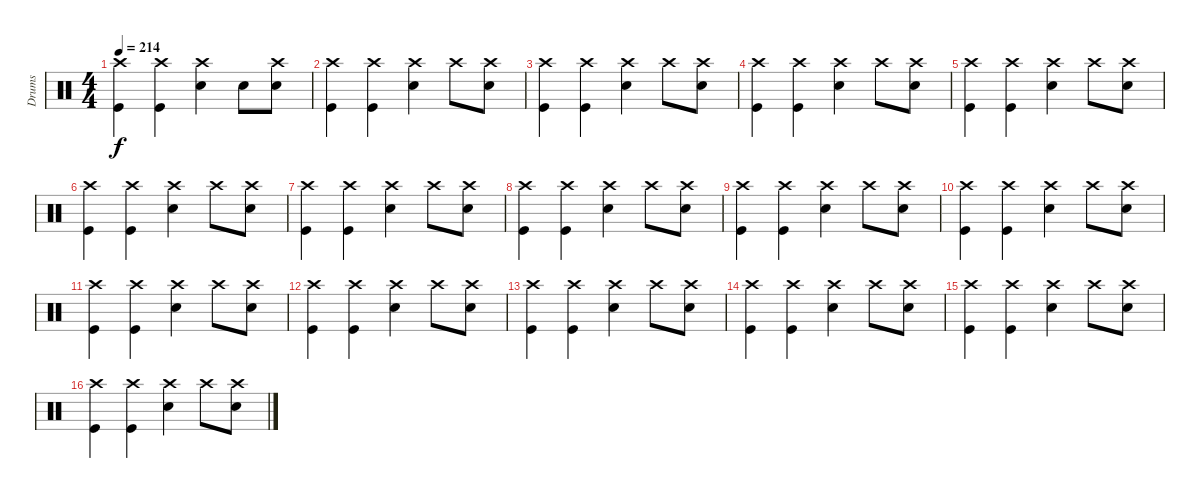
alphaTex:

\track ("Drums" "Drums") {instrument percussion}
\staff {score}
\articulation defaults
\ts (4 4)
\tempo 214
\clef neutral
\ks c
("Crash high (hit)" "Kick (hit)").4{dy f} ("Crash high (hit)" "Kick (hit)").4 ("Crash high (hit)" "Snare (hit) 2").4 "Snare (hit)".8 ("Crash high (hit)" "Snare (hit) 2").8 |
("Crash high (hit)" "Kick (hit)").4 ("Crash high (hit)" "Kick (hit)").4 ("Crash high (hit)" "Snare (hit) 2").4 "Crash high (hit)".8 ("Crash high (hit)" "Snare (hit) 2").8 |
("Crash high (hit)" "Kick (hit)").4 ("Crash high (hit)" "Kick (hit)").4 ("Crash high (hit)" "Snare (hit) 2").4 "Crash high (hit)".8 ("Crash high (hit)" "Snare (hit) 2").8 |
("Crash high (hit)" "Kick (hit)").4 ("Crash high (hit)" "Kick (hit)").4 ("Crash high (hit)" "Snare (hit) 2").4 "Crash high (hit)".8 ("Crash high (hit)" "Snare (hit) 2").8 |
("Crash high (hit)" "Kick (hit)").4 ("Crash high (hit)" "Kick (hit)").4 ("Crash high (hit)" "Snare (hit) 2").4 "Crash high (hit)".8 ("Crash high (hit)" "Snare (hit) 2").8 |
("Crash high (hit)" "Kick (hit)").4 ("Crash high (hit)" "Kick (hit)").4 ("Crash high (hit)" "Snare (hit) 2").4 "Crash high (hit)".8 ("Crash high (hit)" "Snare (hit) 2").8 |
("Crash high (hit)" "Kick (hit)").4 ("Crash high (hit)" "Kick (hit)").4 ("Crash high (hit)" "Snare (hit) 2").4 "Crash high (hit)".8 ("Crash high (hit)" "Snare (hit) 2").8 |
("Crash high (hit)" "Kick (hit)").4 ("Crash high (hit)" "Kick (hit)").4 ("Crash high (hit)" "Snare (hit) 2").4 "Crash high (hit)".8 ("Crash high (hit)" "Snare (hit) 2").8 |
("Crash high (hit)" "Kick (hit)").4 ("Crash high (hit)" "Kick (hit)").4 ("Crash high (hit)" "Snare (hit) 2").4 "Crash high (hit)".8 ("Crash high (hit)" "Snare (hit) 2").8 |
("Crash high (hit)" "Kick (hit)").4 ("Crash high (hit)" "Kick (hit)").4 ("Crash high (hit)" "Snare (hit) 2").4 "Crash high (hit)".8 ("Crash high (hit)" "Snare (hit) 2").8 |
("Crash high (hit)" "Kick (hit)").4 ("Crash high (hit)" "Kick (hit)").4 ("Crash high (hit)" "Snare (hit) 2").4 "Crash high (hit)".8 ("Crash high (hit)" "Snare (hit) 2").8 |
("Crash high (hit)" "Kick (hit)").4 ("Crash high (hit)" "Kick (hit)").4 ("Crash high (hit)" "Snare (hit) 2").4 "Crash high (hit)".8 ("Crash high (hit)" "Snare (hit) 2").8 |
("Crash high (hit)" "Kick (hit)").4 ("Crash high (hit)" "Kick (hit)").4 ("Crash high (hit)" "Snare (hit) 2").4 "Crash high (hit)".8 ("Crash high (hit)" "Snare (hit) 2").8 |
("Crash high (hit)" "Kick (hit)").4 ("Crash high (hit)" "Kick (hit)").4 ("Crash high (hit)" "Snare (hit) 2").4 "Crash high (hit)".8 ("Crash high (hit)" "Snare (hit) 2").8 |
("Crash high (hit)" "Kick (hit)").4 ("Crash high (hit)" "Kick (hit)").4 ("Crash high (hit)" "Snare (hit) 2").4 "Crash high (hit)".8 ("Crash high (hit)" "Snare (hit) 2").8 |
("Crash high (hit)" "Kick (hit)").4 ("Crash high (hit)" "Kick (hit)").4 ("Crash high (hit)" "Snare (hit) 2").4 "Crash high (hit)".8 ("Crash high (hit)" "Snare (hit) 2").8
